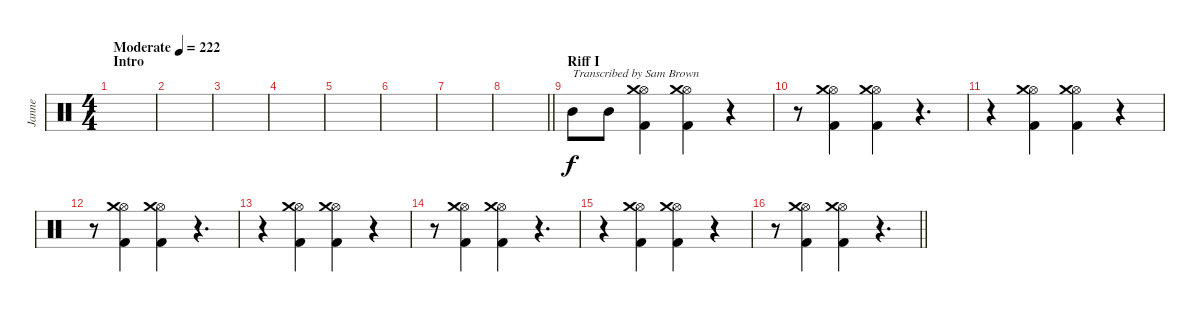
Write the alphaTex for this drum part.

\track ("Janne" "Janne") {instrument percussion}
\staff {score}
\articulation defaults
\ts (4 4)
\section ("" "Intro")
\tempo (222 "Moderate")
\clef neutral
\ks c
|
|
|
|
|
|
|
\barLineRight lightlight
|
\section ("" "Riff I")
"Mid Tom (hit)".8{txt "Transcribed by Sam Brown"} "Mid Tom (hit)".8 ("Kick (hit) 2" "Hi-Hat (open)" "Crash medium (hit)").4 ("Kick (hit) 2" "Hi-Hat (open)" "Crash medium (hit)").4 r.4 |
r.8 ("Kick (hit) 2" "Hi-Hat (open)" "Crash medium (hit)").4 ("Kick (hit) 2" "Hi-Hat (open)" "Crash medium (hit)").4 r.4{d} |
r.4 ("Kick (hit) 2" "Hi-Hat (open)" "Crash medium (hit)").4 ("Kick (hit) 2" "Hi-Hat (open)" "Crash medium (hit)").4 r.4 |
r.8 ("Kick (hit) 2" "Hi-Hat (open)" "Crash medium (hit)").4 ("Kick (hit) 2" "Hi-Hat (open)" "Crash medium (hit)").4 r.4{d} |
r.4 ("Kick (hit) 2" "Hi-Hat (open)" "Crash medium (hit)").4 ("Kick (hit) 2" "Hi-Hat (open)" "Crash medium (hit)").4 r.4 |
r.8 ("Kick (hit) 2" "Hi-Hat (open)" "Crash medium (hit)").4 ("Kick (hit) 2" "Hi-Hat (open)" "Crash medium (hit)").4 r.4{d} |
r.4 ("Kick (hit) 2" "Hi-Hat (open)" "Crash medium (hit)").4 ("Kick (hit) 2" "Hi-Hat (open)" "Crash medium (hit)").4 r.4 |
\barLineRight lightlight
r.8 ("Kick (hit) 2" "Hi-Hat (open)" "Crash medium (hit)").4 ("Kick (hit) 2" "Hi-Hat (open)" "Crash medium (hit)").4 r.4{d}
